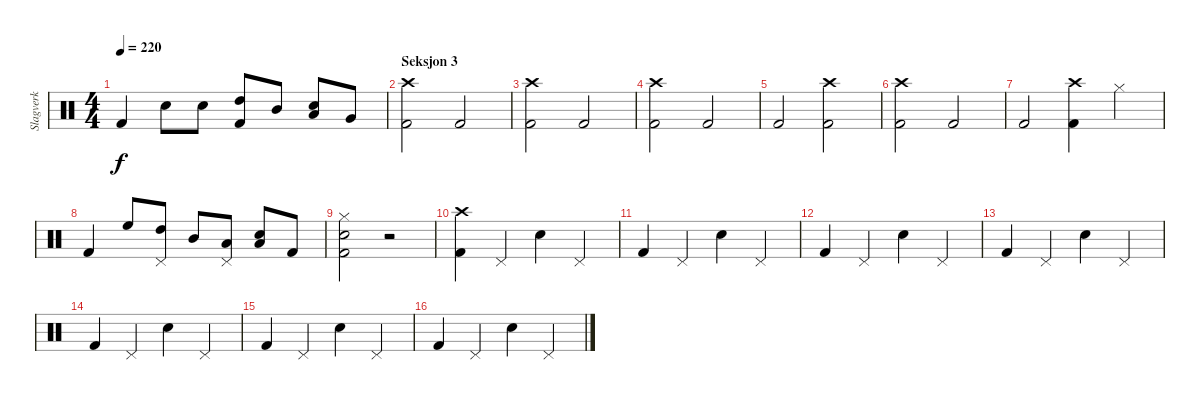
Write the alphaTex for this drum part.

\track ("Slagverk" "Slagverk") {instrument percussion}
\staff {score}
\articulation defaults
\ts (4 4)
\tempo 220
\clef neutral
\ks c "Kick (hit) 2".4{dy f} "Snare (hit) 2".8 "Snare (hit) 2".8
("High Tom (hit)" "Kick (hit) 2").8 "Mid Tom (hit)".8 ("Low Tom (hit)" "Snare (hit) 2").8 "Very Low Tom (hit)".8 |
\section ("" "Seksjon 3")
("Crash high (hit)" "Kick (hit) 2").2 "Kick (hit) 2".2 |
("Crash high (hit)" "Kick (hit) 2").2 "Kick (hit) 2".2 |
("Crash high (hit)" "Kick (hit) 2").2 "Kick (hit) 2".2 |
"Kick (hit) 2".2 ("Crash high (hit)" "Kick (hit) 2").2 |
("Crash high (hit)" "Kick (hit) 2").2 "Kick (hit) 2".2 |
"Kick (hit) 2".2 ("Crash high (hit)" "Kick (hit) 2").4 "Hi-Hat (closed)".4 |
"Kick (hit) 2".4 "High Floor Tom (hit)".8 ("Pedal Hi-Hat (hit)" "High Tom (hit)").8 "Mid Tom (hit)".8 ("Pedal Hi-Hat (hit)" "Low Tom (hit)").8 ("Snare (hit) 2" "Low Floor Tom (hit)").8 "Kick (hit) 2".8 |
("Hi-Hat (closed)" "Snare (hit) 2" "Kick (hit) 2").2 r.2 |
("Crash high (hit)" "Kick (hit) 2").4 "Pedal Hi-Hat (hit)".4 "Snare (hit) 2".4 "Pedal Hi-Hat (hit)".4 |
"Kick (hit) 2".4 "Pedal Hi-Hat (hit)".4 "Snare (hit) 2".4 "Pedal Hi-Hat (hit)".4 |
"Kick (hit) 2".4 "Pedal Hi-Hat (hit)".4 "Snare (hit) 2".4 "Pedal Hi-Hat (hit)".4 |
"Kick (hit) 2".4 "Pedal Hi-Hat (hit)".4 "Snare (hit) 2".4 "Pedal Hi-Hat (hit)".4 |
"Kick (hit) 2".4 "Pedal Hi-Hat (hit)".4 "Snare (hit) 2".4 "Pedal Hi-Hat (hit)".4 |
"Kick (hit) 2".4 "Pedal Hi-Hat (hit)".4 "Snare (hit) 2".4 "Pedal Hi-Hat (hit)".4 |
"Kick (hit) 2".4 "Pedal Hi-Hat (hit)".4 "Snare (hit) 2".4 "Pedal Hi-Hat (hit)".4
